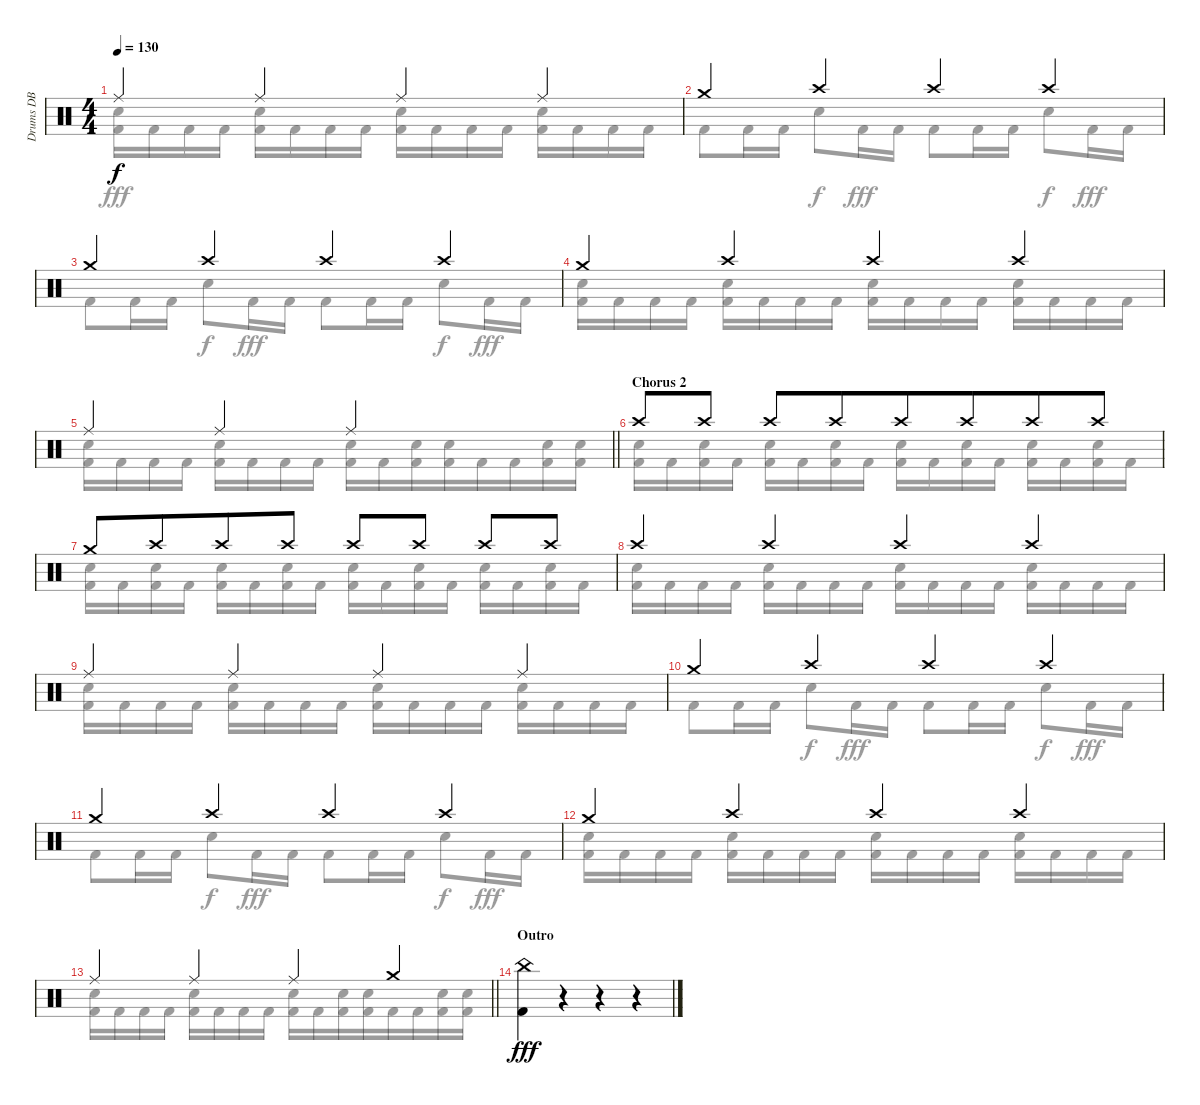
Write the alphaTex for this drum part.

\track ("Drums DB" "Drums DB") {instrument percussion}
\staff {score}
\articulation defaults
\voice
\ts (4 4)
\tempo 130
\clef neutral
\ks aminor "Ride (middle)".4{dy f} "Ride (middle)".4 "Ride (middle)".4 "Ride (middle)".4
|
"Crash medium (hit)".4 "Crash high (hit)".4 "Crash high (hit)".4 "Crash high (hit)".4 |
"Crash medium (hit)".4 "Crash high (hit)".4 "Crash high (hit)".4 "Crash high (hit)".4 |
"Crash medium (hit)".4 "Crash high (hit)".4 "Crash high (hit)".4 "Crash high (hit)".4 |
\barLineRight lightlight "Ride (middle)".4 "Ride (middle)".4 "Ride (middle)".2
|
\section ("" "Chorus 2")
"Crash high (hit)".8 "Crash high (hit)".8 "Crash high (hit)".8 "Crash high (hit)".8{beam merge} "Crash high (hit)".8 "Crash high (hit)".8{beam merge} "Crash high (hit)".8 "Crash high (hit)".8 |
"Crash medium (hit)".8 "Crash high (hit)".8{beam merge} "Crash high (hit)".8{beam merge} "Crash high (hit)".8 "Crash high (hit)".8{beam merge} "Crash high (hit)".8 "Crash high (hit)".8 "Crash high (hit)".8 |
"Crash high (hit)".4 "Crash high (hit)".4 "Crash high (hit)".4 "Crash high (hit)".4 |
"Ride (middle)".4 "Ride (middle)".4 "Ride (middle)".4 "Ride (middle)".4 |
"Crash medium (hit)".4 "Crash high (hit)".4 "Crash high (hit)".4 "Crash high (hit)".4 |
"Crash medium (hit)".4 "Crash high (hit)".4 "Crash high (hit)".4 "Crash high (hit)".4 |
"Crash medium (hit)".4 "Crash high (hit)".4 "Crash high (hit)".4 "Crash high (hit)".4 |
\barLineRight lightlight "Ride (middle)".4 "Ride (middle)".4 "Ride (middle)".4{beam merge} "Crash medium (hit)".4
|
\section ("" "Outro")
\ks c
("China (hit)" "Kick (hit) 2").4{dy fff} r.4 r.4 r.4 |
|
\voice
\clef neutral
\ottava regular
\simile none
\ks aminor
("Snare (hit) 2" "Kick (hit) 2").16{dy fff} "Kick (hit) 2".16 "Kick (hit) 2".16 "Kick (hit) 2".16 ("Snare (hit) 2" "Kick (hit) 2").16 "Kick (hit) 2".16 "Kick (hit) 2".16 "Kick (hit) 2".16 ("Snare (hit) 2" "Kick (hit) 2").16 "Kick (hit) 2".16 "Kick (hit) 2".16 "Kick (hit) 2".16 ("Snare (hit) 2" "Kick (hit) 2").16 "Kick (hit) 2".16 "Kick (hit) 2".16 "Kick (hit) 2".16 |
"Kick (hit) 2".8 "Kick (hit) 2".16 "Kick (hit) 2".16 "Snare (hit) 2".8{dy f} "Kick (hit) 2".16{dy fff} "Kick (hit) 2".16 "Kick (hit) 2".8 "Kick (hit) 2".16 "Kick (hit) 2".16 "Snare (hit) 2".8{dy f} "Kick (hit) 2".16{dy fff} "Kick (hit) 2".16 |
"Kick (hit) 2".8 "Kick (hit) 2".16 "Kick (hit) 2".16 "Snare (hit) 2".8{dy f} "Kick (hit) 2".16{dy fff} "Kick (hit) 2".16 "Kick (hit) 2".8 "Kick (hit) 2".16 "Kick (hit) 2".16 "Snare (hit) 2".8{dy f} "Kick (hit) 2".16{dy fff} "Kick (hit) 2".16 |
("Snare (hit) 2" "Kick (hit) 2").16 "Kick (hit) 2".16 "Kick (hit) 2".16 "Kick (hit) 2".16 ("Snare (hit) 2" "Kick (hit) 2").16 "Kick (hit) 2".16 "Kick (hit) 2".16 "Kick (hit) 2".16 ("Snare (hit) 2" "Kick (hit) 2").16 "Kick (hit) 2".16 "Kick (hit) 2".16 "Kick (hit) 2".16 ("Snare (hit) 2" "Kick (hit) 2").16 "Kick (hit) 2".16 "Kick (hit) 2".16 "Kick (hit) 2".16 |
\barLineRight lightlight
("Snare (hit) 2" "Kick (hit) 2").16 "Kick (hit) 2".16 "Kick (hit) 2".16 "Kick (hit) 2".16 ("Snare (hit) 2" "Kick (hit) 2").16 "Kick (hit) 2".16 "Kick (hit) 2".16 "Kick (hit) 2".16 ("Snare (hit) 2" "Kick (hit) 2").16 "Kick (hit) 2".16{beam merge} ("Snare (hit) 2" "Kick (hit) 2").16 ("Snare (hit) 2" "Kick (hit) 2").16{beam merge} "Kick (hit) 2".16 "Kick (hit) 2".16{beam merge} ("Snare (hit) 2" "Kick (hit) 2").16 ("Snare (hit) 2" "Kick (hit) 2").16 |
("Snare (hit) 2" "Kick (hit) 2").16 "Kick (hit) 2".16 ("Snare (hit) 2" "Kick (hit) 2").16 "Kick (hit) 2".16 ("Snare (hit) 2" "Kick (hit) 2").16 "Kick (hit) 2".16 ("Snare (hit) 2" "Kick (hit) 2").16 "Kick (hit) 2".16 ("Snare (hit) 2" "Kick (hit) 2").16 "Kick (hit) 2".16 ("Snare (hit) 2" "Kick (hit) 2").16 "Kick (hit) 2".16 ("Snare (hit) 2" "Kick (hit) 2").16 "Kick (hit) 2".16 ("Snare (hit) 2" "Kick (hit) 2").16 "Kick (hit) 2".16 |
("Snare (hit) 2" "Kick (hit) 2").16 "Kick (hit) 2".16 ("Snare (hit) 2" "Kick (hit) 2").16 "Kick (hit) 2".16 ("Snare (hit) 2" "Kick (hit) 2").16 "Kick (hit) 2".16 ("Snare (hit) 2" "Kick (hit) 2").16 "Kick (hit) 2".16 ("Snare (hit) 2" "Kick (hit) 2").16 "Kick (hit) 2".16 ("Snare (hit) 2" "Kick (hit) 2").16 "Kick (hit) 2".16 ("Snare (hit) 2" "Kick (hit) 2").16 "Kick (hit) 2".16 ("Snare (hit) 2" "Kick (hit) 2").16 "Kick (hit) 2".16 |
("Snare (hit) 2" "Kick (hit) 2").16 "Kick (hit) 2".16 "Kick (hit) 2".16 "Kick (hit) 2".16 ("Snare (hit) 2" "Kick (hit) 2").16 "Kick (hit) 2".16 "Kick (hit) 2".16 "Kick (hit) 2".16 ("Snare (hit) 2" "Kick (hit) 2").16 "Kick (hit) 2".16 "Kick (hit) 2".16 "Kick (hit) 2".16 ("Snare (hit) 2" "Kick (hit) 2").16 "Kick (hit) 2".16 "Kick (hit) 2".16 "Kick (hit) 2".16 |
("Snare (hit) 2" "Kick (hit) 2").16 "Kick (hit) 2".16 "Kick (hit) 2".16 "Kick (hit) 2".16 ("Snare (hit) 2" "Kick (hit) 2").16 "Kick (hit) 2".16 "Kick (hit) 2".16 "Kick (hit) 2".16 ("Snare (hit) 2" "Kick (hit) 2").16 "Kick (hit) 2".16 "Kick (hit) 2".16 "Kick (hit) 2".16 ("Snare (hit) 2" "Kick (hit) 2").16 "Kick (hit) 2".16 "Kick (hit) 2".16 "Kick (hit) 2".16 |
"Kick (hit) 2".8 "Kick (hit) 2".16 "Kick (hit) 2".16 "Snare (hit) 2".8{dy f} "Kick (hit) 2".16{dy fff} "Kick (hit) 2".16 "Kick (hit) 2".8 "Kick (hit) 2".16 "Kick (hit) 2".16 "Snare (hit) 2".8{dy f} "Kick (hit) 2".16{dy fff} "Kick (hit) 2".16 |
"Kick (hit) 2".8 "Kick (hit) 2".16 "Kick (hit) 2".16 "Snare (hit) 2".8{dy f} "Kick (hit) 2".16{dy fff} "Kick (hit) 2".16 "Kick (hit) 2".8 "Kick (hit) 2".16 "Kick (hit) 2".16 "Snare (hit) 2".8{dy f} "Kick (hit) 2".16{dy fff} "Kick (hit) 2".16 |
("Snare (hit) 2" "Kick (hit) 2").16 "Kick (hit) 2".16 "Kick (hit) 2".16 "Kick (hit) 2".16 ("Snare (hit) 2" "Kick (hit) 2").16 "Kick (hit) 2".16 "Kick (hit) 2".16 "Kick (hit) 2".16 ("Snare (hit) 2" "Kick (hit) 2").16 "Kick (hit) 2".16 "Kick (hit) 2".16 "Kick (hit) 2".16 ("Snare (hit) 2" "Kick (hit) 2").16 "Kick (hit) 2".16 "Kick (hit) 2".16 "Kick (hit) 2".16 |
\barLineRight lightlight
("Snare (hit) 2" "Kick (hit) 2").16 "Kick (hit) 2".16 "Kick (hit) 2".16 "Kick (hit) 2".16 ("Snare (hit) 2" "Kick (hit) 2").16 "Kick (hit) 2".16 "Kick (hit) 2".16 "Kick (hit) 2".16 ("Snare (hit) 2" "Kick (hit) 2").16 "Kick (hit) 2".16{beam merge} ("Snare (hit) 2" "Kick (hit) 2").16 ("Snare (hit) 2" "Kick (hit) 2").16{beam merge} "Kick (hit) 2".16 "Kick (hit) 2".16{beam merge} ("Snare (hit) 2" "Kick (hit) 2").16 ("Snare (hit) 2" "Kick (hit) 2").16 |
\ks c
|
|
